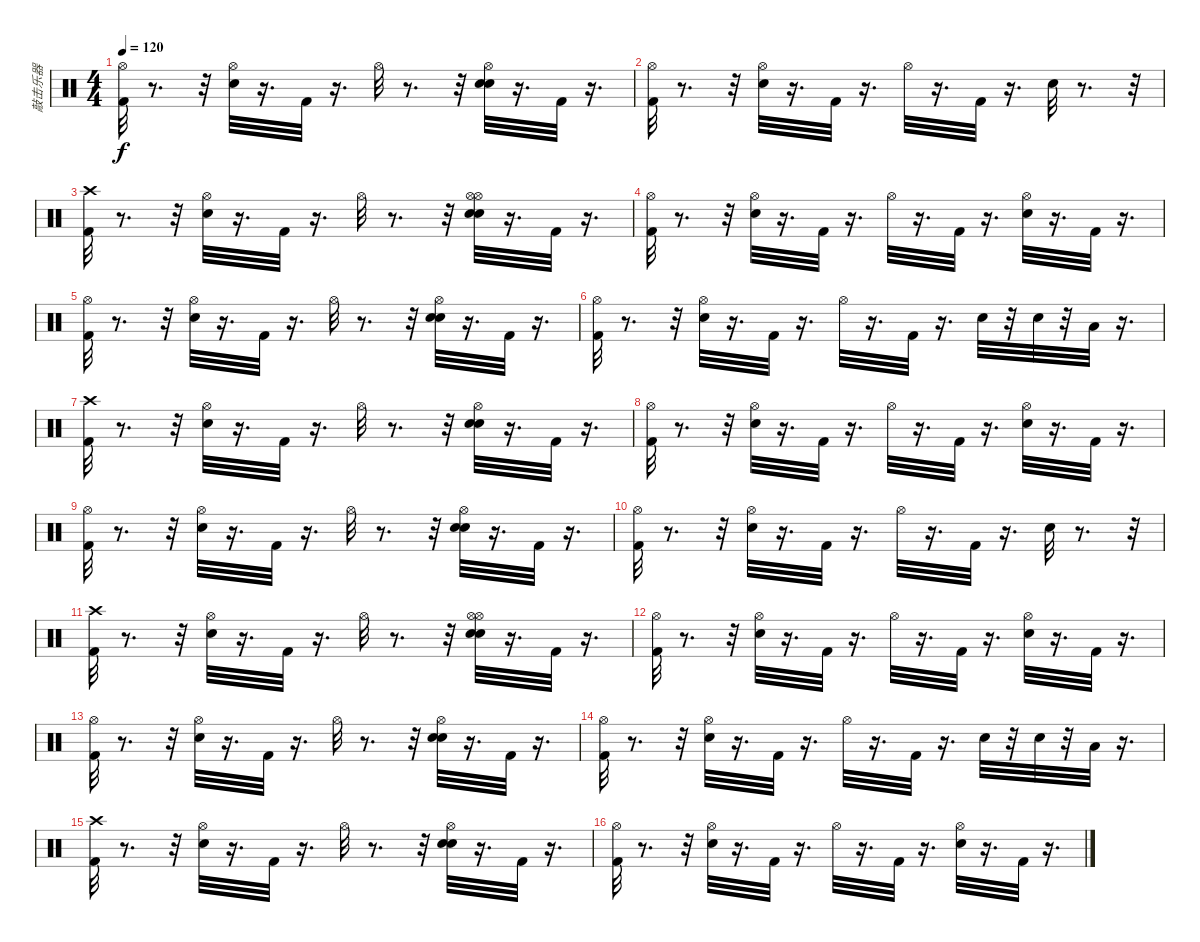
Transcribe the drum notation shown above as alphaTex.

\track ("敲击乐器" "敲击乐器") {instrument percussion}
\staff {score}
\articulation defaults
\ts (4 4)
\tempo 120
\clef neutral
\ks c
("Hi-Hat (open)" "Kick (hit) 2").32{dy f} r.8{d} r.32 ("Snare (hit) 2" "Hi-Hat (open)").32 r.16{d} "Kick (hit) 2".32 r.16{d} "Hi-Hat (open)".32 r.8{d} r.32 ("Snare (hit) 2" "Hi-Hat (open)" "Snare (hit) 2").32 r.16{d} "Kick (hit) 2".32 r.16{d} |
("Hi-Hat (open)" "Kick (hit) 2").32 r.8{d} r.32 ("Snare (hit) 2" "Hi-Hat (open)").32 r.16{d} "Kick (hit) 2".32 r.16{d} "Hi-Hat (open)".32 r.16{d} "Kick (hit) 2".32 r.16{d} "Snare (hit) 2".32 r.8{d} r.32 |
("Kick (hit) 2" "Crash high (hit)").32 r.8{d} r.32 ("Snare (hit) 2" "Hi-Hat (open)").32 r.16{d} "Kick (hit) 2".32 r.16{d} "Hi-Hat (open)".32 r.8{d} r.32 ("Snare (hit) 2" "Hi-Hat (open)" "Snare (hit) 2" "Hi-Hat (open)").32 r.16{d} "Kick (hit) 2".32 r.16{d} |
("Kick (hit) 2" "Hi-Hat (open)").32 r.8{d} r.32 ("Snare (hit) 2" "Hi-Hat (open)").32 r.16{d} "Kick (hit) 2".32 r.16{d} "Hi-Hat (open)".32 r.16{d} "Kick (hit) 2".32 r.16{d} ("Snare (hit) 2" "Hi-Hat (open)").32 r.16{d} "Kick (hit) 2".32 r.16{d} |
("Hi-Hat (open)" "Kick (hit) 2").32 r.8{d} r.32 ("Snare (hit) 2" "Hi-Hat (open)").32 r.16{d} "Kick (hit) 2".32 r.16{d} "Hi-Hat (open)".32 r.8{d} r.32 ("Snare (hit) 2" "Hi-Hat (open)" "Snare (hit) 2").32 r.16{d} "Kick (hit) 2".32 r.16{d} |
("Kick (hit) 2" "Hi-Hat (open)").32 r.8{d} r.32 ("Snare (hit) 2" "Hi-Hat (open)").32 r.16{d} "Kick (hit) 2".32 r.16{d} "Hi-Hat (open)".32 r.16{d} "Kick (hit) 2".32 r.16{d} "Snare (hit) 2".32 r.32 "Snare (hit) 2".32 r.32 "Low Floor Tom (hit)".32 r.16{d} |
("Kick (hit) 2" "Crash high (hit)").32 r.8{d} r.32 ("Snare (hit) 2" "Hi-Hat (open)").32 r.16{d} "Kick (hit) 2".32 r.16{d} "Hi-Hat (open)".32 r.8{d} r.32 ("Snare (hit) 2" "Hi-Hat (open)" "Snare (hit) 2").32 r.16{d} "Kick (hit) 2".32 r.16{d} |
("Kick (hit) 2" "Hi-Hat (open)").32 r.8{d} r.32 ("Snare (hit) 2" "Hi-Hat (open)").32 r.16{d} "Kick (hit) 2".32 r.16{d} "Hi-Hat (open)".32 r.16{d} "Kick (hit) 2".32 r.16{d} ("Hi-Hat (open)" "Snare (hit) 2").32 r.16{d} "Kick (hit) 2".32 r.16{d} |
("Hi-Hat (open)" "Kick (hit) 2").32 r.8{d} r.32 ("Snare (hit) 2" "Hi-Hat (open)").32 r.16{d} "Kick (hit) 2".32 r.16{d} "Hi-Hat (open)".32 r.8{d} r.32 ("Snare (hit) 2" "Snare (hit) 2" "Hi-Hat (open)").32 r.16{d} "Kick (hit) 2".32 r.16{d} |
("Hi-Hat (open)" "Kick (hit) 2").32 r.8{d} r.32 ("Snare (hit) 2" "Hi-Hat (open)").32 r.16{d} "Kick (hit) 2".32 r.16{d} "Hi-Hat (open)".32 r.16{d} "Kick (hit) 2".32 r.16{d} "Snare (hit) 2".32 r.8{d} r.32 |
("Kick (hit) 2" "Crash high (hit)").32 r.8{d} r.32 ("Snare (hit) 2" "Hi-Hat (open)").32 r.16{d} "Kick (hit) 2".32 r.16{d} "Hi-Hat (open)".32 r.8{d} r.32 ("Snare (hit) 2" "Hi-Hat (open)" "Snare (hit) 2" "Hi-Hat (open)").32 r.16{d} "Kick (hit) 2".32 r.16{d} |
("Kick (hit) 2" "Hi-Hat (open)").32 r.8{d} r.32 ("Snare (hit) 2" "Hi-Hat (open)").32 r.16{d} "Kick (hit) 2".32 r.16{d} "Hi-Hat (open)".32 r.16{d} "Kick (hit) 2".32 r.16{d} ("Snare (hit) 2" "Hi-Hat (open)").32 r.16{d} "Kick (hit) 2".32 r.16{d} |
("Hi-Hat (open)" "Kick (hit) 2").32 r.8{d} r.32 ("Snare (hit) 2" "Hi-Hat (open)").32 r.16{d} "Kick (hit) 2".32 r.16{d} "Hi-Hat (open)".32 r.8{d} r.32 ("Snare (hit) 2" "Hi-Hat (open)" "Snare (hit) 2").32 r.16{d} "Kick (hit) 2".32 r.16{d} |
("Kick (hit) 2" "Hi-Hat (open)").32 r.8{d} r.32 ("Snare (hit) 2" "Hi-Hat (open)").32 r.16{d} "Kick (hit) 2".32 r.16{d} "Hi-Hat (open)".32 r.16{d} "Kick (hit) 2".32 r.16{d} "Snare (hit) 2".32 r.32 "Snare (hit) 2".32 r.32 "Low Floor Tom (hit)".32 r.16{d} |
("Kick (hit) 2" "Crash high (hit)").32 r.8{d} r.32 ("Snare (hit) 2" "Hi-Hat (open)").32 r.16{d} "Kick (hit) 2".32 r.16{d} "Hi-Hat (open)".32 r.8{d} r.32 ("Snare (hit) 2" "Hi-Hat (open)" "Snare (hit) 2").32 r.16{d} "Kick (hit) 2".32 r.16{d} |
("Kick (hit) 2" "Hi-Hat (open)").32 r.8{d} r.32 ("Snare (hit) 2" "Hi-Hat (open)").32 r.16{d} "Kick (hit) 2".32 r.16{d} "Hi-Hat (open)".32 r.16{d} "Kick (hit) 2".32 r.16{d} ("Hi-Hat (open)" "Snare (hit) 2").32 r.16{d} "Kick (hit) 2".32 r.16{d}
